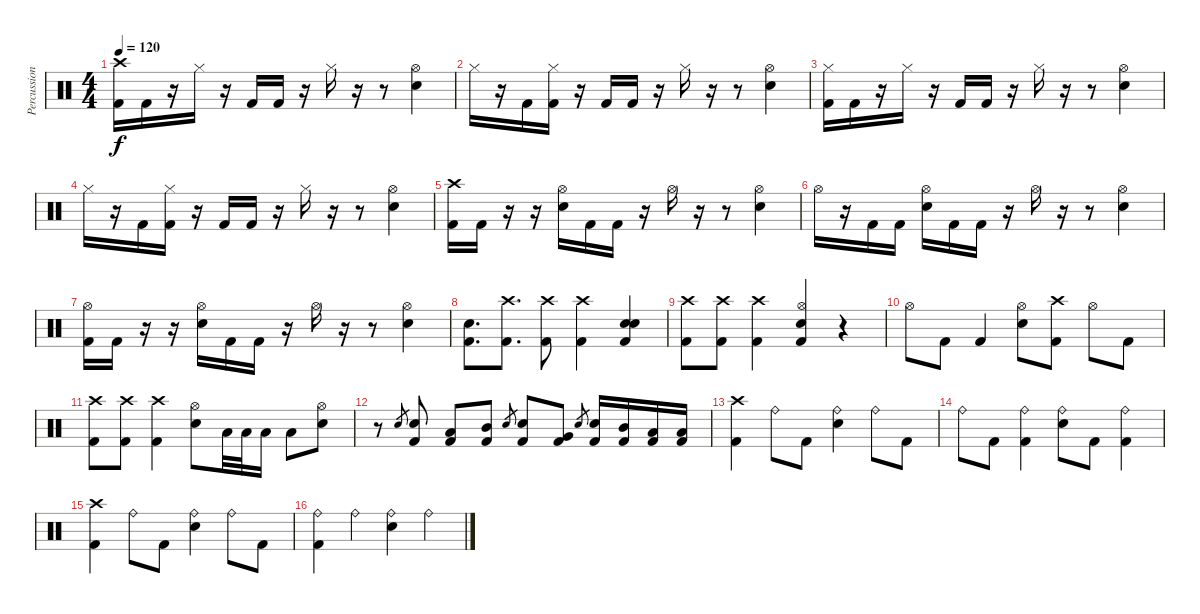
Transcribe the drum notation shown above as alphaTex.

\track ("Percussion" "Percussion") {instrument percussion}
\staff {score}
\articulation defaults
\ts (4 4)
\tempo 120
\clef neutral
\ks c
("Crash high (hit)" "Kick (hit) 2").16{dy f} "Kick (hit) 2".16 r.16 "Hi-Hat (closed)".16 r.16 "Kick (hit) 2".16 "Kick (hit) 2".16 r.16 "Hi-Hat (closed)".16 r.16 r.8 ("Hi-Hat (open)" "Electric Snare (hit)").4 |
"Hi-Hat (closed)".16 r.16 "Kick (hit) 2".16 ("Hi-Hat (closed)" "Kick (hit) 2").16 r.16 "Kick (hit) 2".16 "Kick (hit) 2".16 r.16 "Hi-Hat (closed)".16 r.16 r.8 ("Hi-Hat (open)" "Electric Snare (hit)").4 |
("Hi-Hat (closed)" "Kick (hit) 2").16 "Kick (hit) 2".16 r.16 "Hi-Hat (closed)".16 r.16 "Kick (hit) 2".16 "Kick (hit) 2".16 r.16 "Hi-Hat (closed)".16 r.16 r.8 ("Hi-Hat (open)" "Electric Snare (hit)").4 |
"Hi-Hat (closed)".16 r.16 "Kick (hit) 2".16 ("Hi-Hat (closed)" "Kick (hit) 2").16 r.16 "Kick (hit) 2".16 "Kick (hit) 2".16 r.16 "Hi-Hat (closed)".16 r.16 r.8 ("Hi-Hat (open)" "Electric Snare (hit)").4 |
("Crash high (hit)" "Kick (hit) 2").16 "Kick (hit) 2".16 r.16 r.16 ("Hi-Hat (open)" "Electric Snare (hit)").16 "Kick (hit) 2".16 "Kick (hit) 2".16 r.16 "Hi-Hat (open)".16 r.16 r.8 ("Hi-Hat (open)" "Electric Snare (hit)").4 |
"Hi-Hat (open)".16 r.16 "Kick (hit) 2".16 "Kick (hit) 2".16 ("Hi-Hat (open)" "Electric Snare (hit)").16 "Kick (hit) 2".16 "Kick (hit) 2".16 r.16 "Hi-Hat (open)".16 r.16 r.8 ("Hi-Hat (open)" "Electric Snare (hit)").4 |
("Hi-Hat (open)" "Kick (hit) 2").16 "Kick (hit) 2".16 r.16 r.16 ("Hi-Hat (open)" "Electric Snare (hit)").16 "Kick (hit) 2".16 "Kick (hit) 2".16 r.16 "Hi-Hat (open)".16 r.16 r.8 ("Hi-Hat (open)" "Electric Snare (hit)").4 |
("Electric Snare (hit)" "Kick (hit) 2").8{d} ("Crash high (hit)" "Kick (hit) 2").8{d} ("Crash high (hit)" "Kick (hit) 2").8 ("Crash high (hit)" "Kick (hit) 2").4 ("Electric Snare (hit)" "Electric Snare (hit)" "Kick (hit) 2").4 |
("Crash high (hit)" "Kick (hit) 2").8 ("Crash high (hit)" "Kick (hit) 2").8 ("Crash high (hit)" "Kick (hit) 2").4 ("Hi-Hat (open)" "Electric Snare (hit)" "Kick (hit) 2").4 r.4 |
"Hi-Hat (open)".8 "Kick (hit) 2".8 "Kick (hit) 2".4 ("Hi-Hat (open)" "Electric Snare (hit)").8 ("Crash high (hit)" "Kick (hit) 2").8 "Hi-Hat (open)".8 "Kick (hit) 2".8 |
("Crash high (hit)" "Kick (hit) 2").8 ("Crash high (hit)" "Kick (hit) 2").8 ("Crash high (hit)" "Kick (hit) 2").4 ("Hi-Hat (open)" "Electric Snare (hit)").8 "Low Tom (hit)".32 "Low Tom (hit)".32 "Low Tom (hit)".16 "Low Tom (hit)".8 ("Hi-Hat (open)" "Electric Snare (hit)").8 |
r.8 "Electric Snare (hit)".8{gr} ("Kick (hit) 2" "Electric Snare (hit)").8 ("Kick (hit) 2" "Low Tom (hit)").8 ("Kick (hit) 2" "Mid Tom (hit)").8 "Electric Snare (hit)".8{gr} ("Kick (hit) 2" "Electric Snare (hit)").8 ("Kick (hit) 2" "Very Low Tom (hit)").8 "Electric Snare (hit)".8{gr} ("Kick (hit) 2" "Electric Snare (hit)").16 ("Kick (hit) 2" "Mid Tom (hit)").16 ("Kick (hit) 2" "Low Tom (hit)").16 ("Kick (hit) 2" "Low Tom (hit)").16 |
("Crash high (hit)" "Kick (hit) 2").4 "Ride (bell)".8 "Kick (hit) 2".8 ("Ride (bell)" "Electric Snare (hit)").4 "Ride (bell)".8 "Kick (hit) 2".8 |
"Ride (bell)".8 "Kick (hit) 2".8 ("Ride (bell)" "Kick (hit) 2").4 ("Ride (bell)" "Electric Snare (hit)").8 "Kick (hit) 2".8 ("Ride (bell)" "Kick (hit) 2").4 |
("Crash high (hit)" "Kick (hit) 2").4 "Ride (bell)".8 "Kick (hit) 2".8 ("Ride (bell)" "Electric Snare (hit)").4 "Ride (bell)".8 "Kick (hit) 2".8 |
("Ride (bell)" "Kick (hit) 2").4 "Ride (bell)".4 ("Ride (bell)" "Electric Snare (hit)").4 "Ride (bell)".4
